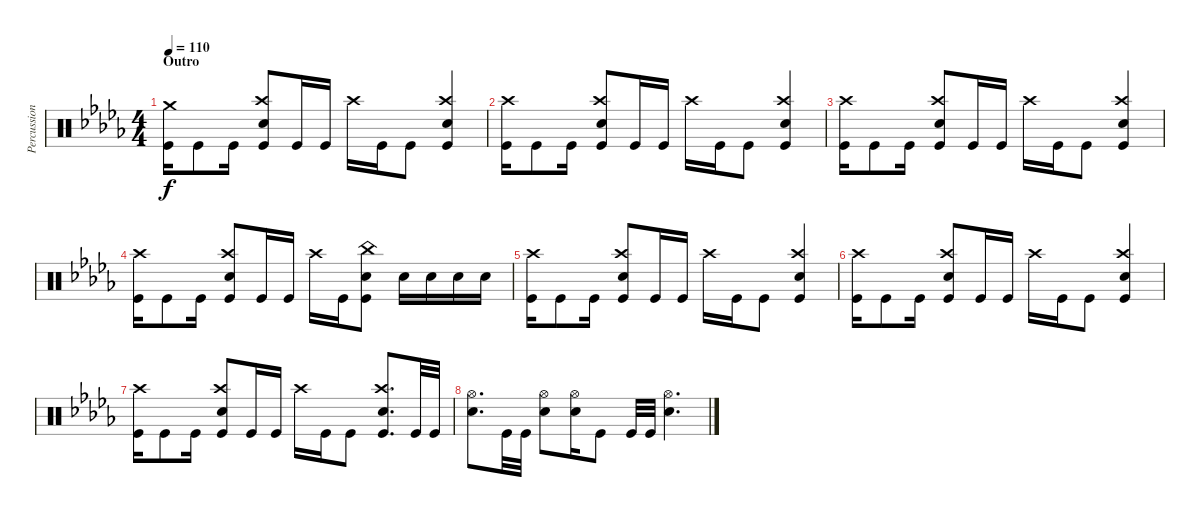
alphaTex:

\track ("Percussion" "Percussion") {instrument percussion}
\staff {score}
\articulation defaults
\ts (4 4)
\section ("" "Outro")
\tempo 110
\clef neutral
\ks db
("Crash medium (hit)" "Kick (hit)").16{dy f} "Kick (hit)".8 "Kick (hit)".16 ("Crash high (hit)" "Electric Snare (hit)" "Kick (hit)").8 "Kick (hit)".16 "Kick (hit)".16 "Crash high (hit)".16 "Kick (hit)".16 "Kick (hit)".8 ("Crash high (hit)" "Electric Snare (hit)" "Kick (hit)").4 |
("Crash high (hit)" "Kick (hit)").16 "Kick (hit)".8 "Kick (hit)".16 ("Crash high (hit)" "Electric Snare (hit)" "Kick (hit)").8 "Kick (hit)".16 "Kick (hit)".16 "Crash high (hit)".16 "Kick (hit)".16 "Kick (hit)".8 ("Crash high (hit)" "Electric Snare (hit)" "Kick (hit)").4 |
("Crash high (hit)" "Kick (hit)").16 "Kick (hit)".8 "Kick (hit)".16 ("Crash high (hit)" "Electric Snare (hit)" "Kick (hit)").8 "Kick (hit)".16 "Kick (hit)".16 "Crash high (hit)".16 "Kick (hit)".16 "Kick (hit)".8 ("Crash high (hit)" "Electric Snare (hit)" "Kick (hit)").4 |
("Crash high (hit)" "Kick (hit)").16 "Kick (hit)".8 "Kick (hit)".16 ("Crash high (hit)" "Electric Snare (hit)" "Kick (hit)").8 "Kick (hit)".16 "Kick (hit)".16 "Crash high (hit)".16 "Kick (hit)".16 ("China (hit)" "Electric Snare (hit)" "Kick (hit)").8 "Electric Snare (hit)".16 "Electric Snare (hit)".16 "Electric Snare (hit)".16 "Electric Snare (hit)".16 |
("Crash high (hit)" "Kick (hit)").16 "Kick (hit)".8 "Kick (hit)".16 ("Crash high (hit)" "Electric Snare (hit)" "Kick (hit)").8 "Kick (hit)".16 "Kick (hit)".16 "Crash high (hit)".16 "Kick (hit)".16 "Kick (hit)".8 ("Crash high (hit)" "Electric Snare (hit)" "Kick (hit)").4 |
("Crash high (hit)" "Kick (hit)").16 "Kick (hit)".8 "Kick (hit)".16 ("Crash high (hit)" "Electric Snare (hit)" "Kick (hit)").8 "Kick (hit)".16 "Kick (hit)".16 "Crash high (hit)".16 "Kick (hit)".16 "Kick (hit)".8 ("Crash high (hit)" "Electric Snare (hit)" "Kick (hit)").4 |
("Crash high (hit)" "Kick (hit)").16 "Kick (hit)".8 "Kick (hit)".16 ("Crash high (hit)" "Electric Snare (hit)" "Kick (hit)").8 "Kick (hit)".16 "Kick (hit)".16 "Crash high (hit)".16 "Kick (hit)".16 "Kick (hit)".8 ("Crash high (hit)" "Electric Snare (hit)" "Kick (hit)").8{d} "Kick (hit)".32 "Kick (hit)".32 |
("Hi-Hat (open)" "Electric Snare (hit)").8{d} "Kick (hit)".32 "Kick (hit)".32 ("Hi-Hat (open)" "Electric Snare (hit)").8 ("Hi-Hat (open)" "Electric Snare (hit)").16 "Kick (hit)".8 "Kick (hit)".32 "Kick (hit)".32 ("Hi-Hat (open)" "Electric Snare (hit)").4{d}
